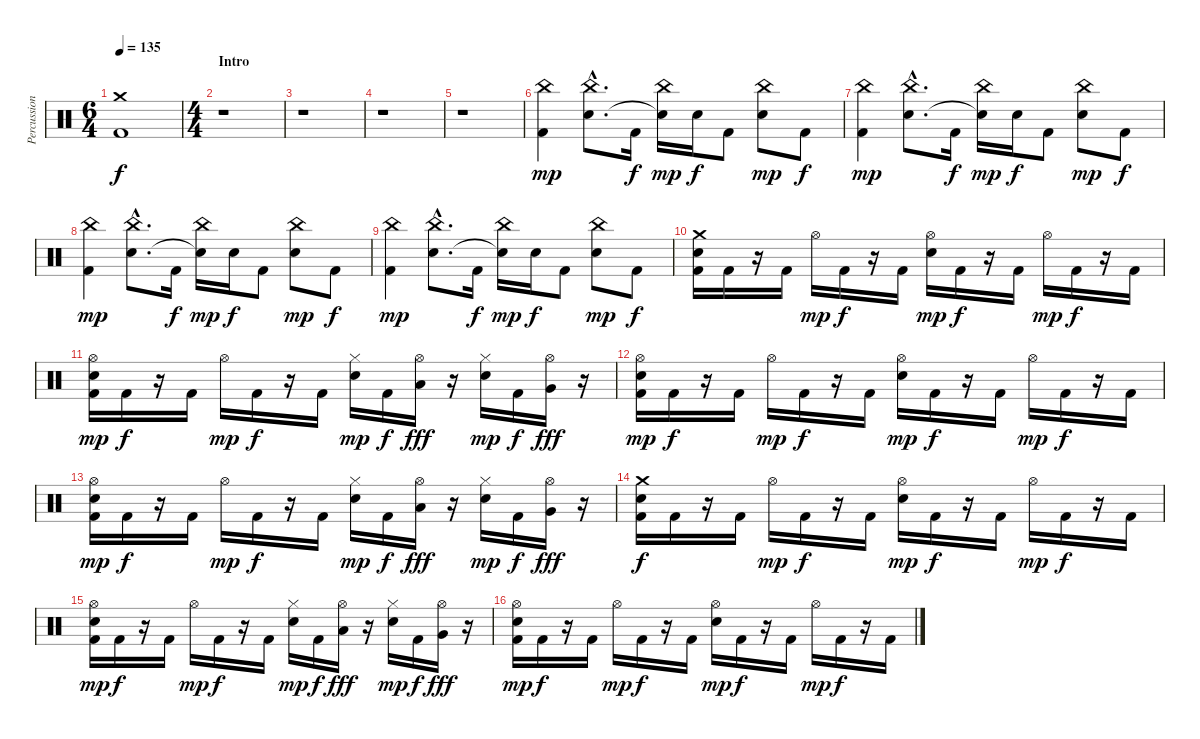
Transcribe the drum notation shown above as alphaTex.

\track ("Percussions" "Percussion") {instrument percussion}
\staff {score}
\articulation defaults
\ts (6 4)
\tempo 135
\clef neutral
\ks c
("Crash medium (hit)" "Kick (hit) 2").1{dy f} |
\ts (4 4)
\section ("" "Intro")
r.1 |
r.1 |
r.1 |
r.1 |
("China (hit)" "Kick (hit) 2").4{dy mp} ("China (hit)"{hac} "Electric Snare (hit)"{hac}).8{d} "Kick (hit) 2".16{dy f} ("China (hit)" "Snare (hit)"{t}).16{dy mp} "Electric Snare (hit)".16{dy f} "Kick (hit) 2".8 ("China (hit)" "Electric Snare (hit)").8{dy mp} "Kick (hit) 2".8{dy f} |
("China (hit)" "Kick (hit) 2").4{dy mp} ("China (hit)"{hac} "Electric Snare (hit)"{hac}).8{d} "Kick (hit) 2".16{dy f} ("China (hit)" "Snare (hit)"{t}).16{dy mp} "Electric Snare (hit)".16{dy f} "Kick (hit) 2".8 ("China (hit)" "Electric Snare (hit)").8{dy mp} "Kick (hit) 2".8{dy f} |
("China (hit)" "Kick (hit) 2").4{dy mp} ("China (hit)"{hac} "Electric Snare (hit)"{hac}).8{d} "Kick (hit) 2".16{dy f} ("China (hit)" "Snare (hit)"{t}).16{dy mp} "Electric Snare (hit)".16{dy f} "Kick (hit) 2".8 ("China (hit)" "Electric Snare (hit)").8{dy mp} "Kick (hit) 2".8{dy f} |
("China (hit)" "Kick (hit) 2").4{dy mp} ("China (hit)"{hac} "Electric Snare (hit)"{hac}).8{d} "Kick (hit) 2".16{dy f} ("China (hit)" "Snare (hit)"{t}).16{dy mp} "Electric Snare (hit)".16{dy f} "Kick (hit) 2".8 ("China (hit)" "Electric Snare (hit)").8{dy mp} "Kick (hit) 2".8{dy f} |
("Crash medium (hit)" "Electric Snare (hit)" "Kick (hit) 2").16 "Kick (hit) 2".16 r.16 "Kick (hit) 2".16 "Hi-Hat (open)".16{dy mp} "Kick (hit) 2".16{dy f} r.16 "Kick (hit) 2".16 ("Hi-Hat (open)" "Electric Snare (hit)").16{dy mp} "Kick (hit) 2".16{dy f} r.16 "Kick (hit) 2".16 "Hi-Hat (open)".16{dy mp} "Kick (hit) 2".16{dy f} r.16 "Kick (hit) 2".16 |
("Hi-Hat (open)" "Electric Snare (hit)" "Kick (hit) 2").16{dy mp} "Kick (hit) 2".16{dy f} r.16 "Kick (hit) 2".16 "Hi-Hat (open)".16{dy mp} "Kick (hit) 2".16{dy f} r.16 "Kick (hit) 2".16 ("Hi-Hat (closed)" "Electric Snare (hit)").16{dy mp} "Kick (hit) 2".16{dy f} ("Hi-Hat (open)" "Low Tom (hit)").16{dy fff} r.16 ("Hi-Hat (closed)" "Electric Snare (hit)").16{dy mp} "Kick (hit) 2".16{dy f} ("Hi-Hat (open)" "Very Low Tom (hit)").16{dy fff} r.16 |
("Hi-Hat (open)" "Electric Snare (hit)" "Kick (hit) 2").16{dy mp} "Kick (hit) 2".16{dy f} r.16 "Kick (hit) 2".16 "Hi-Hat (open)".16{dy mp} "Kick (hit) 2".16{dy f} r.16 "Kick (hit) 2".16 ("Hi-Hat (open)" "Electric Snare (hit)").16{dy mp} "Kick (hit) 2".16{dy f} r.16 "Kick (hit) 2".16 "Hi-Hat (open)".16{dy mp} "Kick (hit) 2".16{dy f} r.16 "Kick (hit) 2".16 |
("Hi-Hat (open)" "Electric Snare (hit)" "Kick (hit) 2").16{dy mp} "Kick (hit) 2".16{dy f} r.16 "Kick (hit) 2".16 "Hi-Hat (open)".16{dy mp} "Kick (hit) 2".16{dy f} r.16 "Kick (hit) 2".16 ("Hi-Hat (closed)" "Electric Snare (hit)").16{dy mp} "Kick (hit) 2".16{dy f} ("Hi-Hat (open)" "Low Tom (hit)").16{dy fff} r.16 ("Hi-Hat (closed)" "Electric Snare (hit)").16{dy mp} "Kick (hit) 2".16{dy f} ("Hi-Hat (open)" "Very Low Tom (hit)").16{dy fff} r.16 |
("Crash medium (hit)" "Electric Snare (hit)" "Kick (hit) 2").16{dy f} "Kick (hit) 2".16 r.16 "Kick (hit) 2".16 "Hi-Hat (open)".16{dy mp} "Kick (hit) 2".16{dy f} r.16 "Kick (hit) 2".16 ("Hi-Hat (open)" "Electric Snare (hit)").16{dy mp} "Kick (hit) 2".16{dy f} r.16 "Kick (hit) 2".16 "Hi-Hat (open)".16{dy mp} "Kick (hit) 2".16{dy f} r.16 "Kick (hit) 2".16 |
("Hi-Hat (open)" "Electric Snare (hit)" "Kick (hit) 2").16{dy mp} "Kick (hit) 2".16{dy f} r.16 "Kick (hit) 2".16 "Hi-Hat (open)".16{dy mp} "Kick (hit) 2".16{dy f} r.16 "Kick (hit) 2".16 ("Hi-Hat (closed)" "Electric Snare (hit)").16{dy mp} "Kick (hit) 2".16{dy f} ("Hi-Hat (open)" "Low Tom (hit)").16{dy fff} r.16 ("Hi-Hat (closed)" "Electric Snare (hit)").16{dy mp} "Kick (hit) 2".16{dy f} ("Hi-Hat (open)" "Very Low Tom (hit)").16{dy fff} r.16 |
("Hi-Hat (open)" "Electric Snare (hit)" "Kick (hit) 2").16{dy mp} "Kick (hit) 2".16{dy f} r.16 "Kick (hit) 2".16 "Hi-Hat (open)".16{dy mp} "Kick (hit) 2".16{dy f} r.16 "Kick (hit) 2".16 ("Hi-Hat (open)" "Electric Snare (hit)").16{dy mp} "Kick (hit) 2".16{dy f} r.16 "Kick (hit) 2".16 "Hi-Hat (open)".16{dy mp} "Kick (hit) 2".16{dy f} r.16 "Kick (hit) 2".16
